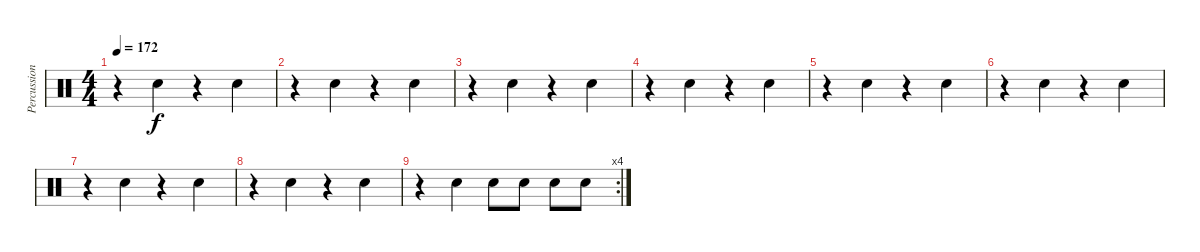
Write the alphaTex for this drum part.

\track ("Percussion" "Percussion") {instrument percussion}
\staff {score}
\articulation defaults
\ts (4 4)
\tempo 172
\clef neutral
\ks c
r.4{dy f} "Snare (hit) 2".4 r.4 "Snare (hit) 2".4 |
r.4 "Snare (hit) 2".4 r.4 "Snare (hit) 2".4 |
r.4 "Snare (hit) 2".4 r.4 "Snare (hit) 2".4 |
r.4 "Snare (hit) 2".4 r.4 "Snare (hit) 2".4 |
r.4 "Snare (hit) 2".4 r.4 "Snare (hit) 2".4 |
r.4 "Snare (hit) 2".4 r.4 "Snare (hit) 2".4 |
r.4 "Snare (hit) 2".4 r.4 "Snare (hit) 2".4 |
r.4 "Snare (hit) 2".4 r.4 "Snare (hit) 2".4 |
\rc 4
r.4 "Snare (hit) 2".4 "Snare (hit) 2".8 "Snare (hit) 2".8 "Snare (hit) 2".8 "Snare (hit) 2".8
